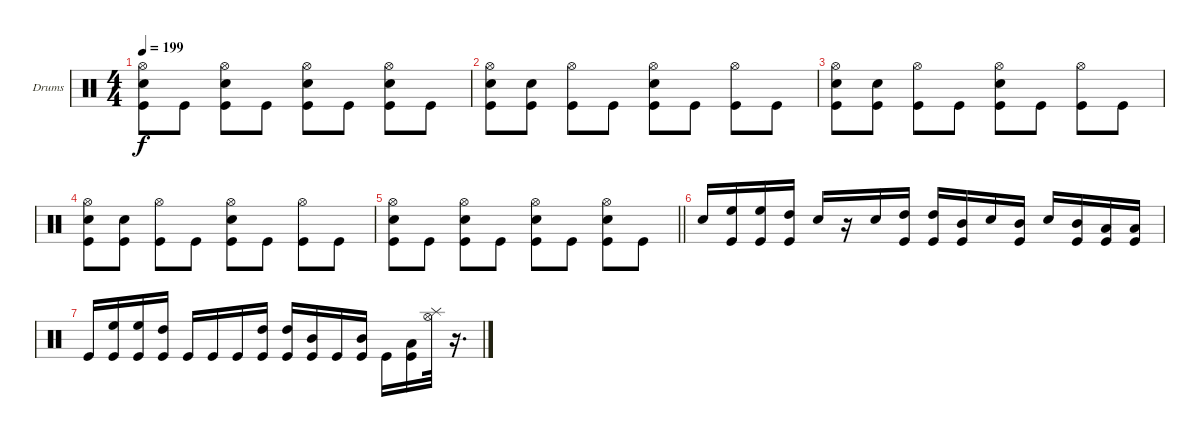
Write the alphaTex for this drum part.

\bracketExtendMode groupsimilarinstruments
\firstSystemTrackNameOrientation horizontal
\otherSystemsTrackNameOrientation horizontal
\track ("Drumkit" "Drums") {instrument percussion}
\staff {score}
\articulation defaults
\ts (4 4)
\tempo 199
\clef neutral
\ks c
("Hi-Hat (open)" "Kick (hit)" "Snare (hit) 2").8{dy f} "Kick (hit)".8 ("Hi-Hat (open)" "Kick (hit)" "Snare (hit) 2").8 "Kick (hit)".8 ("Hi-Hat (open)" "Kick (hit)" "Snare (hit) 2").8 "Kick (hit)".8 ("Hi-Hat (open)" "Kick (hit)" "Snare (hit) 2").8 "Kick (hit)".8 |
("Hi-Hat (open)" "Kick (hit)" "Snare (hit) 2").8 ("Kick (hit)" "Snare (hit) 2").8 ("Hi-Hat (open)" "Kick (hit)").8 "Kick (hit)".8 ("Hi-Hat (open)" "Kick (hit)" "Snare (hit) 2").8 "Kick (hit)".8 ("Hi-Hat (open)" "Kick (hit)").8 "Kick (hit)".8 |
("Hi-Hat (open)" "Kick (hit)" "Snare (hit) 2").8 ("Kick (hit)" "Snare (hit) 2").8 ("Hi-Hat (open)" "Kick (hit)").8 "Kick (hit)".8 ("Hi-Hat (open)" "Kick (hit)" "Snare (hit) 2").8 "Kick (hit)".8 ("Hi-Hat (open)" "Kick (hit)").8 "Kick (hit)".8 |
("Hi-Hat (open)" "Kick (hit)" "Snare (hit) 2").8 ("Kick (hit)" "Snare (hit) 2").8 ("Hi-Hat (open)" "Kick (hit)").8 "Kick (hit)".8 ("Hi-Hat (open)" "Kick (hit)" "Snare (hit) 2").8 "Kick (hit)".8 ("Hi-Hat (open)" "Kick (hit)").8 "Kick (hit)".8 |
\barLineRight lightlight
("Hi-Hat (open)" "Kick (hit)" "Snare (hit) 2").8 "Kick (hit)".8 ("Hi-Hat (open)" "Kick (hit)" "Snare (hit) 2").8 "Kick (hit)".8 ("Hi-Hat (open)" "Kick (hit)" "Snare (hit) 2").8 "Kick (hit)".8 ("Hi-Hat (open)" "Kick (hit)" "Snare (hit) 2").8 "Kick (hit)".8 |
"Snare (hit) 2".16 ("High Floor Tom (hit)" "Kick (hit)").16 ("High Floor Tom (hit)" "Kick (hit)").16 ("High Tom (hit)" "Kick (hit)").16 "Snare (hit) 2".16 r.16 "Snare (hit) 2".16 ("High Tom (hit)" "Kick (hit)").16 ("High Tom (hit)" "Kick (hit)").16 ("Mid Tom (hit)" "Kick (hit)").16 "Snare (hit) 2".16 ("Mid Tom (hit)" "Kick (hit)").16 "Snare (hit) 2".16 ("Mid Tom (hit)" "Kick (hit)").16 ("Low Tom (hit)" "Kick (hit)").16 ("Low Tom (hit)" "Kick (hit)").16 |
"Kick (hit)".16 ("High Floor Tom (hit)" "Kick (hit)").16 ("High Floor Tom (hit)" "Kick (hit)").16 ("High Tom (hit)" "Kick (hit)").16 "Kick (hit)".16 "Kick (hit)".16 "Kick (hit)".16 ("High Tom (hit)" "Kick (hit)").16 ("High Tom (hit)" "Kick (hit)").16 ("Mid Tom (hit)" "Kick (hit)").16 "Kick (hit)".16 ("Mid Tom (hit)" "Kick (hit)").16 "Kick (hit)".16 ("Low Tom (hit)" "Kick (hit)").16 ("Hi-Hat (open)" "Splash (hit)").32 r.16{d}
